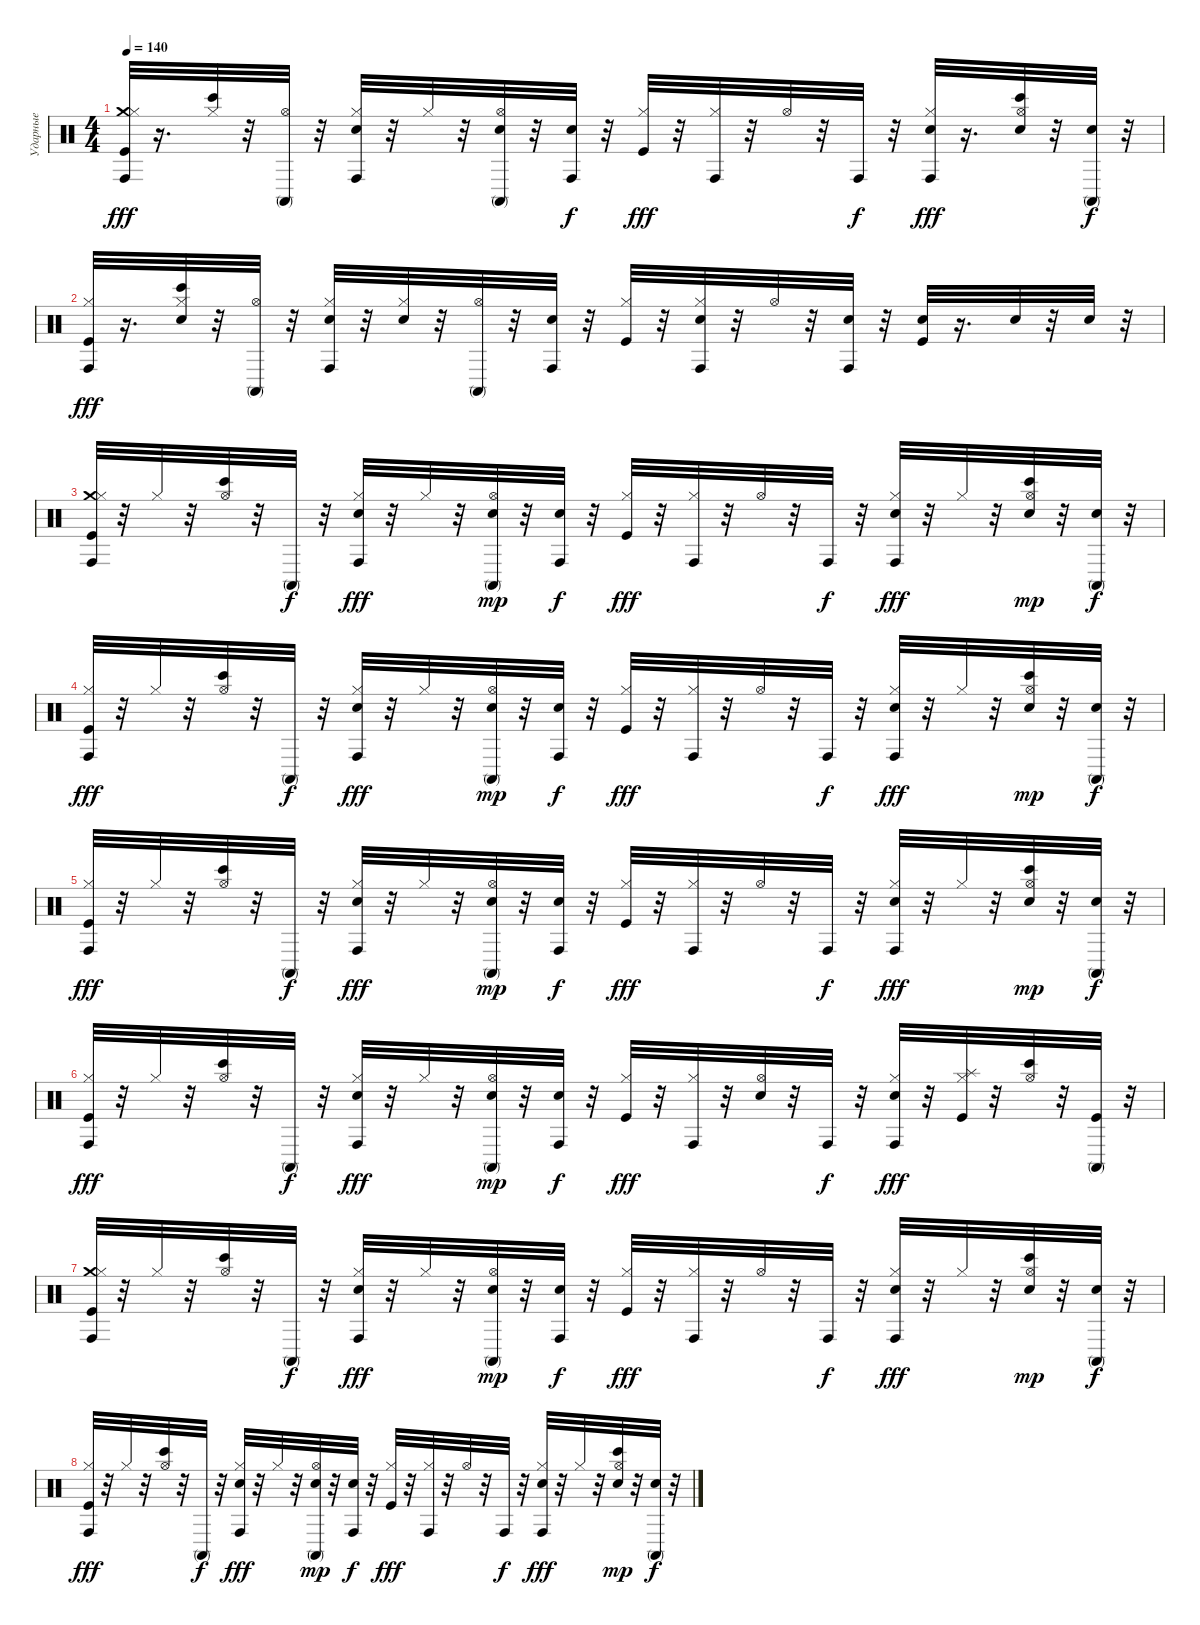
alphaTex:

\track ("Ударные" "Ударные") {instrument percussion}
\staff {score}
\articulation defaults
\ts (4 4)
\tempo 140
\clef neutral
\ks c
("Crash medium (hit)" "Kick (hit)" "Hi-Hat (closed)" "Conga high (hit)").32{dy fff} r.16{d} ("Hi-Hat (closed)" "Bongo High (hit)").32 r.32 ("Hi-Hat (open)" "Conga high (mute)").32 r.32 ("Electric Snare (hit)" "Hi-Hat (closed)" "Conga high (hit)").32 r.32 "Hi-Hat (closed)".32 r.32 ("Electric Snare (hit)" "Hi-Hat (open)" "Conga high (mute)").32 r.32 ("Electric Snare (hit)" "Conga high (hit)").32{dy f} r.32 ("Kick (hit)" "Hi-Hat (closed)").32{dy fff} r.32 ("Hi-Hat (closed)" "Conga high (hit)").32 r.32 "Hi-Hat (open)".32 r.32 "Conga high (hit)".32{dy f} r.32 ("Electric Snare (hit)" "Hi-Hat (closed)" "Conga high (hit)").32{dy fff} r.16{d} ("Electric Snare (hit)" "Hi-Hat (open)" "Bongo High (hit)").32 r.32 ("Electric Snare (hit)" "Conga high (mute)").32{dy f} r.32 |
("Hi-Hat (closed)" "Kick (hit)" "Conga high (hit)").32{dy fff} r.16{d} ("Hi-Hat (closed)" "Bongo High (hit)" "Electric Snare (hit)").32 r.32 ("Hi-Hat (open)" "Conga high (mute)").32 r.32 ("Hi-Hat (closed)" "Conga high (hit)" "Electric Snare (hit)").32 r.32 ("Hi-Hat (closed)" "Electric Snare (hit)").32 r.32 ("Hi-Hat (open)" "Conga high (mute)").32 r.32 ("Conga high (hit)" "Electric Snare (hit)").32 r.32 ("Hi-Hat (closed)" "Kick (hit)").32 r.32 ("Hi-Hat (closed)" "Conga high (hit)" "Electric Snare (hit)").32 r.32 "Hi-Hat (open)".32 r.32 ("Conga high (hit)" "Electric Snare (hit)").32 r.32 ("Electric Snare (hit)" "Kick (hit)").32 r.16{d} "Electric Snare (hit)".32 r.32 "Electric Snare (hit)".32 r.32 |
("Conga high (hit)" "Crash medium (hit)" "Hi-Hat (closed)" "Kick (hit)").32 r.32 "Hi-Hat (closed)".32 r.32 ("Bongo High (hit)" "Hi-Hat (open)").32 r.32 "Conga high (mute)".32{dy f} r.32 ("Conga high (hit)" "Hi-Hat (closed)" "Electric Snare (hit)").32{dy fff} r.32 "Hi-Hat (closed)".32 r.32 ("Conga high (mute)" "Hi-Hat (open)" "Electric Snare (hit)").32{dy mp} r.32 ("Conga high (hit)" "Electric Snare (hit)").32{dy f} r.32 ("Hi-Hat (closed)" "Kick (hit)").32{dy fff} r.32 ("Conga high (hit)" "Hi-Hat (closed)").32 r.32 "Hi-Hat (open)".32 r.32 "Conga high (hit)".32{dy f} r.32 ("Conga high (hit)" "Hi-Hat (closed)" "Electric Snare (hit)").32{dy fff} r.32 "Hi-Hat (closed)".32 r.32 ("Bongo High (hit)" "Hi-Hat (open)" "Electric Snare (hit)").32{dy mp} r.32 ("Conga high (mute)" "Electric Snare (hit)").32{dy f} r.32 |
("Hi-Hat (closed)" "Kick (hit)" "Conga high (hit)").32{dy fff} r.32 "Hi-Hat (closed)".32 r.32 ("Hi-Hat (open)" "Bongo High (hit)").32 r.32 "Conga high (mute)".32{dy f} r.32 ("Hi-Hat (closed)" "Electric Snare (hit)" "Conga high (hit)").32{dy fff} r.32 "Hi-Hat (closed)".32 r.32 ("Hi-Hat (open)" "Electric Snare (hit)" "Conga high (mute)").32{dy mp} r.32 ("Electric Snare (hit)" "Conga high (hit)").32{dy f} r.32 ("Hi-Hat (closed)" "Kick (hit)").32{dy fff} r.32 ("Hi-Hat (closed)" "Conga high (hit)").32 r.32 "Hi-Hat (open)".32 r.32 "Conga high (hit)".32{dy f} r.32 ("Hi-Hat (closed)" "Electric Snare (hit)" "Conga high (hit)").32{dy fff} r.32 "Hi-Hat (closed)".32 r.32 ("Hi-Hat (open)" "Electric Snare (hit)" "Bongo High (hit)").32{dy mp} r.32 ("Electric Snare (hit)" "Conga high (mute)").32{dy f} r.32 |
("Kick (hit)" "Hi-Hat (closed)" "Conga high (hit)").32{dy fff} r.32 "Hi-Hat (closed)".32 r.32 ("Bongo High (hit)" "Hi-Hat (open)").32 r.32 "Conga high (mute)".32{dy f} r.32 ("Conga high (hit)" "Hi-Hat (closed)" "Electric Snare (hit)").32{dy fff} r.32 "Hi-Hat (closed)".32 r.32 ("Conga high (mute)" "Hi-Hat (open)" "Electric Snare (hit)").32{dy mp} r.32 ("Conga high (hit)" "Electric Snare (hit)").32{dy f} r.32 ("Hi-Hat (closed)" "Kick (hit)").32{dy fff} r.32 ("Conga high (hit)" "Hi-Hat (closed)").32 r.32 "Hi-Hat (open)".32 r.32 "Conga high (hit)".32{dy f} r.32 ("Conga high (hit)" "Hi-Hat (closed)" "Electric Snare (hit)").32{dy fff} r.32 "Hi-Hat (closed)".32 r.32 ("Bongo High (hit)" "Hi-Hat (open)" "Electric Snare (hit)").32{dy mp} r.32 ("Conga high (mute)" "Electric Snare (hit)").32{dy f} r.32 |
("Hi-Hat (closed)" "Kick (hit)" "Conga high (hit)").32{dy fff} r.32 "Hi-Hat (closed)".32 r.32 ("Hi-Hat (open)" "Bongo High (hit)").32 r.32 "Conga high (mute)".32{dy f} r.32 ("Hi-Hat (closed)" "Electric Snare (hit)" "Conga high (hit)").32{dy fff} r.32 "Hi-Hat (closed)".32 r.32 ("Hi-Hat (open)" "Electric Snare (hit)" "Conga high (mute)").32{dy mp} r.32 ("Electric Snare (hit)" "Conga high (hit)").32{dy f} r.32 ("Hi-Hat (closed)" "Kick (hit)").32{dy fff} r.32 ("Hi-Hat (closed)" "Conga high (hit)").32 r.32 ("Hi-Hat (open)" "Electric Snare (hit)").32 r.32 "Conga high (hit)".32{dy f} r.32 ("Hi-Hat (closed)" "Conga high (hit)" "Electric Snare (hit)").32{dy fff} r.32 ("Hi-Hat (closed)" "Kick (hit)" "Splash (hit)").32 r.32 ("Hi-Hat (open)" "Bongo High (hit)").32 r.32 ("Conga high (mute)" "Kick (hit)").32 r.32 |
("Conga high (hit)" "Crash medium (hit)" "Hi-Hat (closed)" "Kick (hit)").32 r.32 "Hi-Hat (closed)".32 r.32 ("Bongo High (hit)" "Hi-Hat (open)").32 r.32 "Conga high (mute)".32{dy f} r.32 ("Conga high (hit)" "Hi-Hat (closed)" "Electric Snare (hit)").32{dy fff} r.32 "Hi-Hat (closed)".32 r.32 ("Conga high (mute)" "Hi-Hat (open)" "Electric Snare (hit)").32{dy mp} r.32 ("Conga high (hit)" "Electric Snare (hit)").32{dy f} r.32 ("Hi-Hat (closed)" "Kick (hit)").32{dy fff} r.32 ("Conga high (hit)" "Hi-Hat (closed)").32 r.32 "Hi-Hat (open)".32 r.32 "Conga high (hit)".32{dy f} r.32 ("Conga high (hit)" "Hi-Hat (closed)" "Electric Snare (hit)").32{dy fff} r.32 "Hi-Hat (closed)".32 r.32 ("Bongo High (hit)" "Hi-Hat (open)" "Electric Snare (hit)").32{dy mp} r.32 ("Conga high (mute)" "Electric Snare (hit)").32{dy f} r.32 |
("Hi-Hat (closed)" "Kick (hit)" "Conga high (hit)").32{dy fff} r.32 "Hi-Hat (closed)".32 r.32 ("Hi-Hat (open)" "Bongo High (hit)").32 r.32 "Conga high (mute)".32{dy f} r.32 ("Hi-Hat (closed)" "Electric Snare (hit)" "Conga high (hit)").32{dy fff} r.32 "Hi-Hat (closed)".32 r.32 ("Hi-Hat (open)" "Electric Snare (hit)" "Conga high (mute)").32{dy mp} r.32 ("Electric Snare (hit)" "Conga high (hit)").32{dy f} r.32 ("Hi-Hat (closed)" "Kick (hit)").32{dy fff} r.32 ("Hi-Hat (closed)" "Conga high (hit)").32 r.32 "Hi-Hat (open)".32 r.32 "Conga high (hit)".32{dy f} r.32 ("Hi-Hat (closed)" "Electric Snare (hit)" "Conga high (hit)").32{dy fff} r.32 "Hi-Hat (closed)".32 r.32 ("Hi-Hat (open)" "Electric Snare (hit)" "Bongo High (hit)").32{dy mp} r.32 ("Electric Snare (hit)" "Conga high (mute)").32{dy f} r.32
